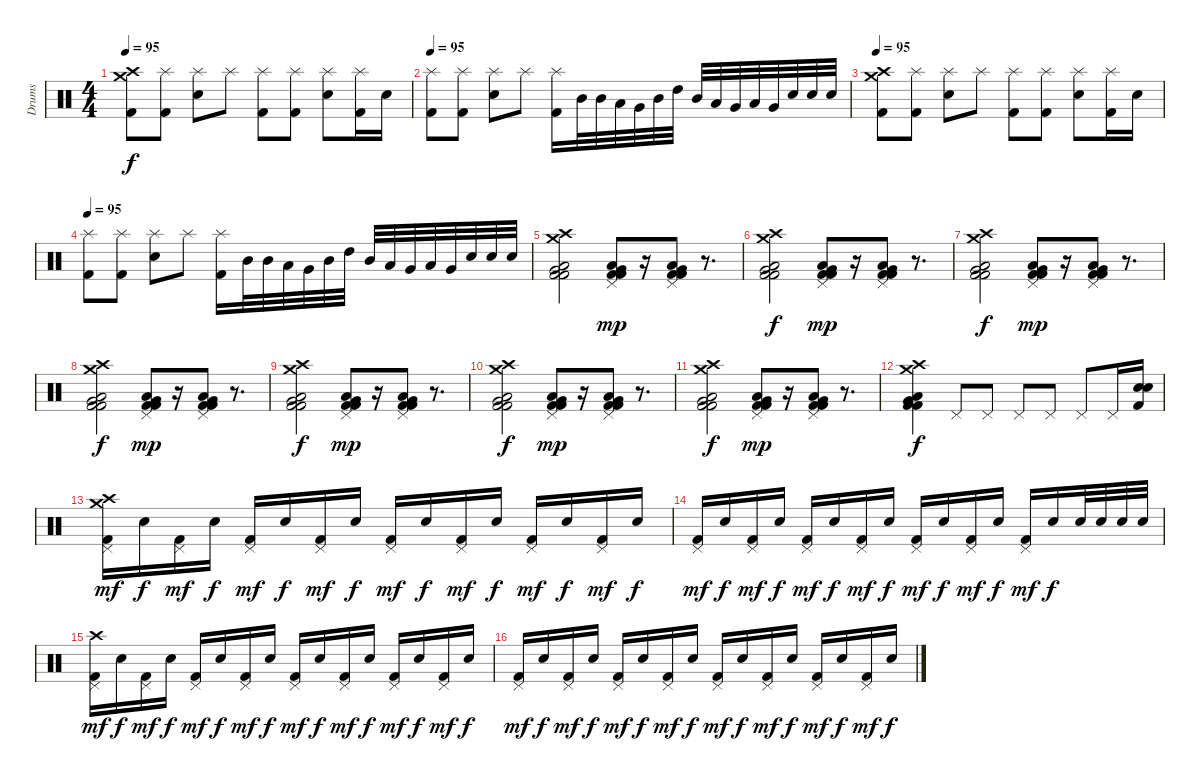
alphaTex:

\track ("Drums" "Drums") {instrument percussion}
\staff {score}
\articulation defaults
\ts (4 4)
\tempo 95
\clef neutral
\ks c
("Crash high (hit)" "Crash medium (hit)" "Kick (hit) 2").8{dy f} ("Splash (hit)" "Kick (hit) 2").8 ("Splash (hit)" "Snare (hit) 2").8 "Splash (hit)".8 ("Splash (hit)" "Kick (hit) 2").8 ("Splash (hit)" "Kick (hit) 2").8 ("Splash (hit)" "Snare (hit) 2").8 ("Splash (hit)" "Kick (hit) 2").16 "Snare (hit) 2".16 |
\tempo 95
("Splash (hit)" "Kick (hit) 2").8 ("Splash (hit)" "Kick (hit) 2").8 ("Splash (hit)" "Snare (hit) 2").8 "Splash (hit)".8 ("Splash (hit)" "Kick (hit) 2").16 "Mid Tom (hit)".32 "Mid Tom (hit)".32 "Low Tom (hit)".32 "Very Low Tom (hit)".32 "Mid Tom (hit)".32 "High Tom (hit)".32 "Mid Tom (hit)".32 "Low Tom (hit)".32 "Very Low Tom (hit)".32 "Low Tom (hit)".32 "Very Low Tom (hit)".32 "Snare (hit) 2".32 "Snare (hit) 2".32 "Snare (hit) 2".32 |
\tempo 95
("Crash high (hit)" "Crash medium (hit)" "Kick (hit) 2").8 ("Splash (hit)" "Kick (hit) 2").8 ("Splash (hit)" "Snare (hit) 2").8 "Splash (hit)".8 ("Splash (hit)" "Kick (hit) 2").8 ("Splash (hit)" "Kick (hit) 2").8 ("Splash (hit)" "Snare (hit) 2").8 ("Splash (hit)" "Kick (hit) 2").16 "Snare (hit) 2".16 |
\tempo 95
("Splash (hit)" "Kick (hit) 2").8 ("Splash (hit)" "Kick (hit) 2").8 ("Splash (hit)" "Snare (hit) 2").8 "Splash (hit)".8 ("Splash (hit)" "Kick (hit) 2").16 "Mid Tom (hit)".32 "Mid Tom (hit)".32 "Low Tom (hit)".32 "Very Low Tom (hit)".32 "Mid Tom (hit)".32 "High Tom (hit)".32 "Mid Tom (hit)".32 "Low Tom (hit)".32 "Very Low Tom (hit)".32 "Low Tom (hit)".32 "Very Low Tom (hit)".32 "Snare (hit) 2".32 "Snare (hit) 2".32 "Snare (hit) 2".32 |
("Very Low Tom (hit)" "Low Floor Tom (hit)" "Crash medium (hit)" "Crash high (hit)" "Kick (hit) 2" "Kick (hit) 2").2 ("Pedal Hi-Hat (hit)" "Low Floor Tom (hit)" "Very Low Tom (hit)" "Kick (hit) 2" "Kick (hit) 2").8{dy mp} r.16 ("Pedal Hi-Hat (hit)" "Low Floor Tom (hit)" "Very Low Tom (hit)" "Kick (hit) 2" "Kick (hit) 2").8 r.8{d} |
("Very Low Tom (hit)" "Low Floor Tom (hit)" "Crash medium (hit)" "Crash high (hit)" "Kick (hit) 2" "Kick (hit) 2").2{dy f} ("Pedal Hi-Hat (hit)" "Low Floor Tom (hit)" "Very Low Tom (hit)" "Kick (hit) 2" "Kick (hit) 2").8{dy mp} r.16 ("Pedal Hi-Hat (hit)" "Low Floor Tom (hit)" "Very Low Tom (hit)" "Kick (hit) 2" "Kick (hit) 2").8 r.8{d} |
("Very Low Tom (hit)" "Low Floor Tom (hit)" "Crash medium (hit)" "Crash high (hit)" "Kick (hit) 2" "Kick (hit) 2").2{dy f} ("Pedal Hi-Hat (hit)" "Low Floor Tom (hit)" "Very Low Tom (hit)" "Kick (hit) 2" "Kick (hit) 2").8{dy mp} r.16 ("Pedal Hi-Hat (hit)" "Low Floor Tom (hit)" "Very Low Tom (hit)" "Kick (hit) 2" "Kick (hit) 2").8 r.8{d} |
("Very Low Tom (hit)" "Low Floor Tom (hit)" "Crash medium (hit)" "Crash high (hit)" "Kick (hit) 2" "Kick (hit) 2").2{dy f} ("Pedal Hi-Hat (hit)" "Low Floor Tom (hit)" "Very Low Tom (hit)" "Kick (hit) 2" "Kick (hit) 2").8{dy mp} r.16 ("Pedal Hi-Hat (hit)" "Low Floor Tom (hit)" "Very Low Tom (hit)" "Kick (hit) 2" "Kick (hit) 2").8 r.8{d} |
("Very Low Tom (hit)" "Low Floor Tom (hit)" "Crash medium (hit)" "Crash high (hit)" "Kick (hit) 2" "Kick (hit) 2").2{dy f} ("Pedal Hi-Hat (hit)" "Low Floor Tom (hit)" "Very Low Tom (hit)" "Kick (hit) 2" "Kick (hit) 2").8{dy mp} r.16 ("Pedal Hi-Hat (hit)" "Low Floor Tom (hit)" "Very Low Tom (hit)" "Kick (hit) 2" "Kick (hit) 2").8 r.8{d} |
("Very Low Tom (hit)" "Low Floor Tom (hit)" "Crash medium (hit)" "Crash high (hit)" "Kick (hit) 2" "Kick (hit) 2").2{dy f} ("Pedal Hi-Hat (hit)" "Low Floor Tom (hit)" "Very Low Tom (hit)" "Kick (hit) 2" "Kick (hit) 2").8{dy mp} r.16 ("Pedal Hi-Hat (hit)" "Low Floor Tom (hit)" "Very Low Tom (hit)" "Kick (hit) 2" "Kick (hit) 2").8 r.8{d} |
("Very Low Tom (hit)" "Low Floor Tom (hit)" "Crash medium (hit)" "Crash high (hit)" "Kick (hit) 2" "Kick (hit) 2").2{dy f} ("Pedal Hi-Hat (hit)" "Low Floor Tom (hit)" "Very Low Tom (hit)" "Kick (hit) 2" "Kick (hit) 2").8{dy mp} r.16 ("Pedal Hi-Hat (hit)" "Low Floor Tom (hit)" "Very Low Tom (hit)" "Kick (hit) 2" "Kick (hit) 2").8 r.8{d} |
("Very Low Tom (hit)" "Low Floor Tom (hit)" "Crash medium (hit)" "Crash high (hit)" "Kick (hit) 2" "Kick (hit) 2").4{dy f} "Pedal Hi-Hat (hit)".8 "Pedal Hi-Hat (hit)".8 "Pedal Hi-Hat (hit)".8 "Pedal Hi-Hat (hit)".8 "Pedal Hi-Hat (hit)".8 "Pedal Hi-Hat (hit)".16 ("Snare (hit) 2" "Snare (hit) 2" "Kick (hit) 2").16 |
("Crash high (hit)" "Crash medium (hit)" "Pedal Hi-Hat (hit)" "Kick (hit) 2").16{dy mf} "Snare (hit) 2".16{dy f} ("Pedal Hi-Hat (hit)" "Kick (hit) 2").16{dy mf} "Snare (hit) 2".16{dy f} ("Pedal Hi-Hat (hit)" "Kick (hit) 2").16{dy mf} "Snare (hit) 2".16{dy f} ("Pedal Hi-Hat (hit)" "Kick (hit) 2").16{dy mf} "Snare (hit) 2".16{dy f} ("Pedal Hi-Hat (hit)" "Kick (hit) 2").16{dy mf} "Snare (hit) 2".16{dy f} ("Pedal Hi-Hat (hit)" "Kick (hit) 2").16{dy mf} "Snare (hit) 2".16{dy f} ("Pedal Hi-Hat (hit)" "Kick (hit) 2").16{dy mf} "Snare (hit) 2".16{dy f} ("Pedal Hi-Hat (hit)" "Kick (hit) 2").16{dy mf} "Snare (hit) 2".16{dy f} |
("Pedal Hi-Hat (hit)" "Kick (hit) 2").16{dy mf} "Snare (hit) 2".16{dy f} ("Pedal Hi-Hat (hit)" "Kick (hit) 2").16{dy mf} "Snare (hit) 2".16{dy f} ("Pedal Hi-Hat (hit)" "Kick (hit) 2").16{dy mf} "Snare (hit) 2".16{dy f} ("Pedal Hi-Hat (hit)" "Kick (hit) 2").16{dy mf} "Snare (hit) 2".16{dy f} ("Pedal Hi-Hat (hit)" "Kick (hit) 2").16{dy mf} "Snare (hit) 2".16{dy f} ("Pedal Hi-Hat (hit)" "Kick (hit) 2").16{dy mf} "Snare (hit) 2".16{dy f} ("Pedal Hi-Hat (hit)" "Kick (hit) 2").16{dy mf} "Snare (hit) 2".16{dy f} "Snare (hit) 2".32 "Snare (hit) 2".32 "Snare (hit) 2".32 "Snare (hit) 2".32 |
("Crash high (hit)" "Pedal Hi-Hat (hit)" "Kick (hit) 2").16{dy mf} "Snare (hit) 2".16{dy f} ("Pedal Hi-Hat (hit)" "Kick (hit) 2").16{dy mf} "Snare (hit) 2".16{dy f} ("Pedal Hi-Hat (hit)" "Kick (hit) 2").16{dy mf} "Snare (hit) 2".16{dy f} ("Pedal Hi-Hat (hit)" "Kick (hit) 2").16{dy mf} "Snare (hit) 2".16{dy f} ("Pedal Hi-Hat (hit)" "Kick (hit) 2").16{dy mf} "Snare (hit) 2".16{dy f} ("Pedal Hi-Hat (hit)" "Kick (hit) 2").16{dy mf} "Snare (hit) 2".16{dy f} ("Pedal Hi-Hat (hit)" "Kick (hit) 2").16{dy mf} "Snare (hit) 2".16{dy f} ("Pedal Hi-Hat (hit)" "Kick (hit) 2").16{dy mf} "Snare (hit) 2".16{dy f} |
("Pedal Hi-Hat (hit)" "Kick (hit) 2").16{dy mf} "Snare (hit) 2".16{dy f} ("Pedal Hi-Hat (hit)" "Kick (hit) 2").16{dy mf} "Snare (hit) 2".16{dy f} ("Pedal Hi-Hat (hit)" "Kick (hit) 2").16{dy mf} "Snare (hit) 2".16{dy f} ("Pedal Hi-Hat (hit)" "Kick (hit) 2").16{dy mf} "Snare (hit) 2".16{dy f} ("Pedal Hi-Hat (hit)" "Kick (hit) 2").16{dy mf} "Snare (hit) 2".16{dy f} ("Pedal Hi-Hat (hit)" "Kick (hit) 2").16{dy mf} "Snare (hit) 2".16{dy f} ("Pedal Hi-Hat (hit)" "Kick (hit) 2").16{dy mf} "Snare (hit) 2".16{dy f} ("Pedal Hi-Hat (hit)" "Kick (hit) 2").16{dy mf} "Snare (hit) 2".16{dy f}
